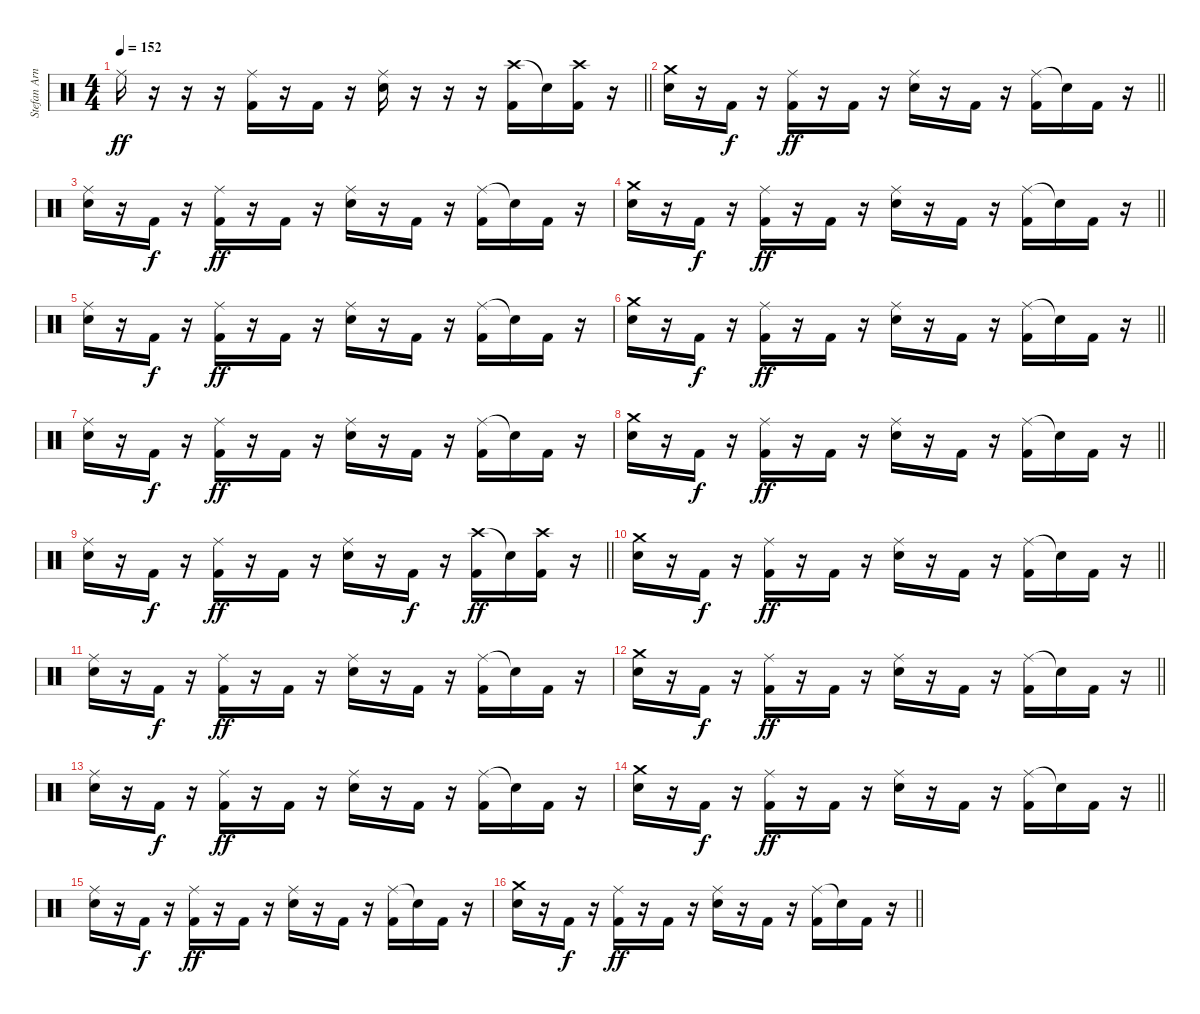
\track ("Stefan Arnold" "Stefan Arn") {instrument percussion}
\staff {score}
\articulation defaults
\ts (4 4)
\tempo 152
\clef neutral
\barLineRight lightlight
\ks c "Ride (middle)".16{dy ff}
r.16 r.16 r.16 ("Ride (middle)" "Kick (hit) 2").16 r.16 "Kick (hit) 2".16 r.16 ("Ride (middle)" "Electric Snare (hit)").16 r.16 r.16 r.16 ("Crash high (hit)" "Kick (hit) 2").16 "Snare (hit)"{t}.16 ("Crash high (hit)" "Kick (hit) 2").16 r.16 |
\barLineRight lightlight
("Crash medium (hit)" "Electric Snare (hit)").16 r.16 "Kick (hit) 2".16{dy f} r.16 ("Ride (middle)" "Kick (hit) 2").16{dy ff} r.16 "Kick (hit) 2".16 r.16 ("Ride (middle)" "Electric Snare (hit)").16 r.16 "Kick (hit) 2".16 r.16 ("Ride (middle)" "Kick (hit) 2").16 "Snare (hit)"{t}.16 "Kick (hit) 2".16 r.16 |
("Ride (middle)" "Electric Snare (hit)").16 r.16 "Kick (hit) 2".16{dy f} r.16 ("Ride (middle)" "Kick (hit) 2").16{dy ff} r.16 "Kick (hit) 2".16 r.16 ("Ride (middle)" "Electric Snare (hit)").16 r.16 "Kick (hit) 2".16 r.16 ("Ride (middle)" "Kick (hit) 2").16 "Snare (hit)"{t}.16 "Kick (hit) 2".16 r.16 |
\barLineRight lightlight
("Crash medium (hit)" "Electric Snare (hit)").16 r.16 "Kick (hit) 2".16{dy f} r.16 ("Ride (middle)" "Kick (hit) 2").16{dy ff} r.16 "Kick (hit) 2".16 r.16 ("Ride (middle)" "Electric Snare (hit)").16 r.16 "Kick (hit) 2".16 r.16 ("Ride (middle)" "Kick (hit) 2").16 "Snare (hit)"{t}.16 "Kick (hit) 2".16 r.16 |
("Ride (middle)" "Electric Snare (hit)").16 r.16 "Kick (hit) 2".16{dy f} r.16 ("Ride (middle)" "Kick (hit) 2").16{dy ff} r.16 "Kick (hit) 2".16 r.16 ("Ride (middle)" "Electric Snare (hit)").16 r.16 "Kick (hit) 2".16 r.16 ("Ride (middle)" "Kick (hit) 2").16 "Snare (hit)"{t}.16 "Kick (hit) 2".16 r.16 |
\barLineRight lightlight
("Crash medium (hit)" "Electric Snare (hit)").16 r.16 "Kick (hit) 2".16{dy f} r.16 ("Ride (middle)" "Kick (hit) 2").16{dy ff} r.16 "Kick (hit) 2".16 r.16 ("Ride (middle)" "Electric Snare (hit)").16 r.16 "Kick (hit) 2".16 r.16 ("Ride (middle)" "Kick (hit) 2").16 "Snare (hit)"{t}.16 "Kick (hit) 2".16 r.16 |
("Ride (middle)" "Electric Snare (hit)").16 r.16 "Kick (hit) 2".16{dy f} r.16 ("Ride (middle)" "Kick (hit) 2").16{dy ff} r.16 "Kick (hit) 2".16 r.16 ("Ride (middle)" "Electric Snare (hit)").16 r.16 "Kick (hit) 2".16 r.16 ("Ride (middle)" "Kick (hit) 2").16 "Snare (hit)"{t}.16 "Kick (hit) 2".16 r.16 |
\barLineRight lightlight
("Crash medium (hit)" "Electric Snare (hit)").16 r.16 "Kick (hit) 2".16{dy f} r.16 ("Ride (middle)" "Kick (hit) 2").16{dy ff} r.16 "Kick (hit) 2".16 r.16 ("Ride (middle)" "Electric Snare (hit)").16 r.16 "Kick (hit) 2".16 r.16 ("Ride (middle)" "Kick (hit) 2").16 "Snare (hit)"{t}.16 "Kick (hit) 2".16 r.16 |
\barLineRight lightlight
("Ride (middle)" "Electric Snare (hit)").16 r.16 "Kick (hit) 2".16{dy f} r.16 ("Ride (middle)" "Kick (hit) 2").16{dy ff} r.16 "Kick (hit) 2".16 r.16 ("Ride (middle)" "Electric Snare (hit)").16 r.16 "Kick (hit) 2".16{dy f} r.16 ("Crash high (hit)" "Kick (hit) 2").16{dy ff} "Snare (hit)"{t}.16 ("Crash high (hit)" "Kick (hit) 2").16 r.16 |
\barLineRight lightlight
("Crash medium (hit)" "Electric Snare (hit)").16 r.16 "Kick (hit) 2".16{dy f} r.16 ("Ride (middle)" "Kick (hit) 2").16{dy ff} r.16 "Kick (hit) 2".16 r.16 ("Ride (middle)" "Electric Snare (hit)").16 r.16 "Kick (hit) 2".16 r.16 ("Ride (middle)" "Kick (hit) 2").16 "Snare (hit)"{t}.16 "Kick (hit) 2".16 r.16 |
("Ride (middle)" "Electric Snare (hit)").16 r.16 "Kick (hit) 2".16{dy f} r.16 ("Ride (middle)" "Kick (hit) 2").16{dy ff} r.16 "Kick (hit) 2".16 r.16 ("Ride (middle)" "Electric Snare (hit)").16 r.16 "Kick (hit) 2".16 r.16 ("Ride (middle)" "Kick (hit) 2").16 "Snare (hit)"{t}.16 "Kick (hit) 2".16 r.16 |
\barLineRight lightlight
("Crash medium (hit)" "Electric Snare (hit)").16 r.16 "Kick (hit) 2".16{dy f} r.16 ("Ride (middle)" "Kick (hit) 2").16{dy ff} r.16 "Kick (hit) 2".16 r.16 ("Ride (middle)" "Electric Snare (hit)").16 r.16 "Kick (hit) 2".16 r.16 ("Ride (middle)" "Kick (hit) 2").16 "Snare (hit)"{t}.16 "Kick (hit) 2".16 r.16 |
("Ride (middle)" "Electric Snare (hit)").16 r.16 "Kick (hit) 2".16{dy f} r.16 ("Ride (middle)" "Kick (hit) 2").16{dy ff} r.16 "Kick (hit) 2".16 r.16 ("Ride (middle)" "Electric Snare (hit)").16 r.16 "Kick (hit) 2".16 r.16 ("Ride (middle)" "Kick (hit) 2").16 "Snare (hit)"{t}.16 "Kick (hit) 2".16 r.16 |
\barLineRight lightlight
("Crash medium (hit)" "Electric Snare (hit)").16 r.16 "Kick (hit) 2".16{dy f} r.16 ("Ride (middle)" "Kick (hit) 2").16{dy ff} r.16 "Kick (hit) 2".16 r.16 ("Ride (middle)" "Electric Snare (hit)").16 r.16 "Kick (hit) 2".16 r.16 ("Ride (middle)" "Kick (hit) 2").16 "Snare (hit)"{t}.16 "Kick (hit) 2".16 r.16 |
("Ride (middle)" "Electric Snare (hit)").16 r.16 "Kick (hit) 2".16{dy f} r.16 ("Ride (middle)" "Kick (hit) 2").16{dy ff} r.16 "Kick (hit) 2".16 r.16 ("Ride (middle)" "Electric Snare (hit)").16 r.16 "Kick (hit) 2".16 r.16 ("Ride (middle)" "Kick (hit) 2").16 "Snare (hit)"{t}.16 "Kick (hit) 2".16 r.16 |
\barLineRight lightlight
("Crash medium (hit)" "Electric Snare (hit)").16 r.16 "Kick (hit) 2".16{dy f} r.16 ("Ride (middle)" "Kick (hit) 2").16{dy ff} r.16 "Kick (hit) 2".16 r.16 ("Ride (middle)" "Electric Snare (hit)").16 r.16 "Kick (hit) 2".16 r.16 ("Ride (middle)" "Kick (hit) 2").16 "Snare (hit)"{t}.16 "Kick (hit) 2".16 r.16
